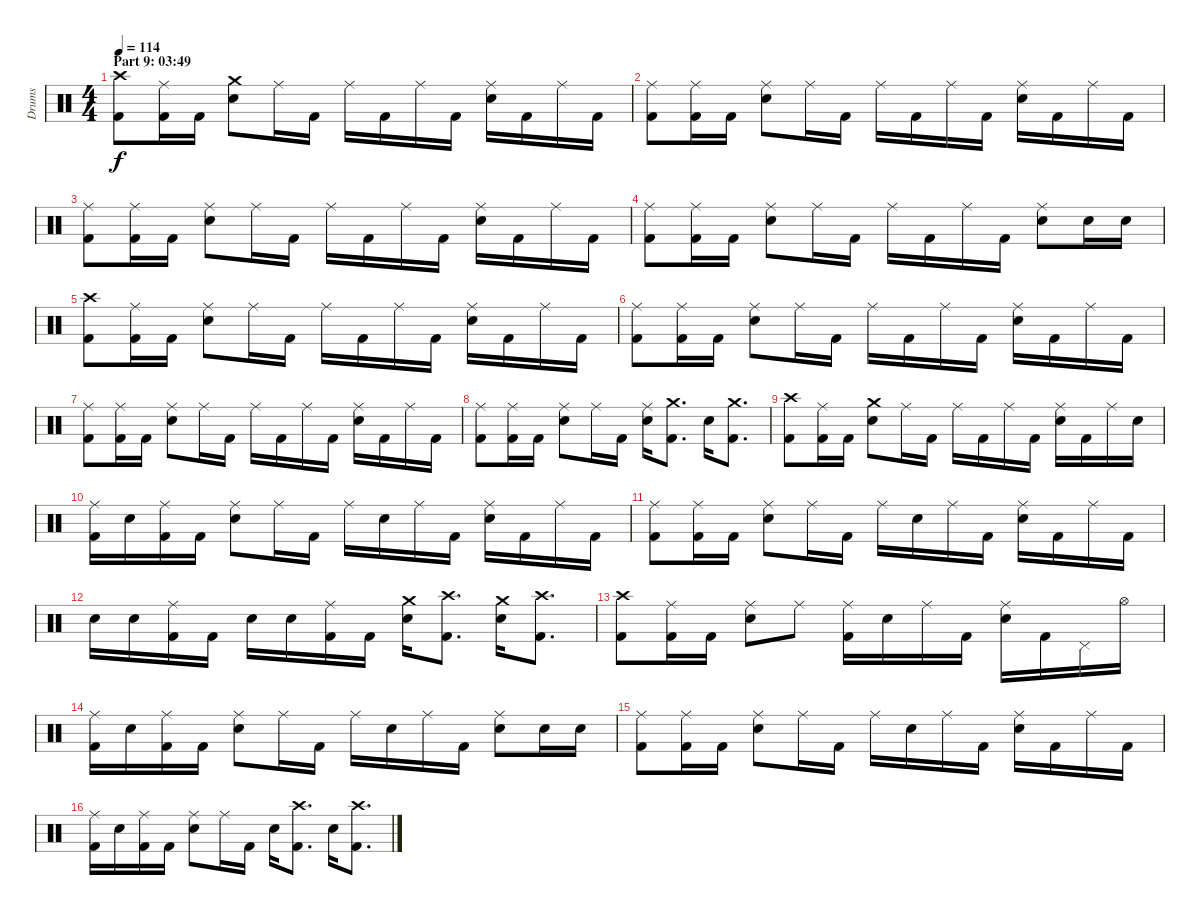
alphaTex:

\track ("Drums" "Drums") {instrument percussion}
\staff {score}
\articulation defaults
\ts (4 4)
\section ("" "Part 9: 03:49")
\tempo 114
\clef neutral
\ks c
("Crash high (hit)" "Kick (hit) 2").8{dy f} ("Ride (middle)" "Kick (hit) 2").16 "Kick (hit) 2".16 ("Crash medium (hit)" "Electric Snare (hit)").8 "Ride (middle)".16 "Kick (hit) 2".16 "Ride (middle)".16 "Kick (hit) 2".16 "Ride (middle)".16 "Kick (hit) 2".16 ("Ride (middle)" "Electric Snare (hit)").16 "Kick (hit) 2".16 "Ride (middle)".16 "Kick (hit) 2".16 |
("Ride (middle)" "Kick (hit) 2").8 ("Ride (middle)" "Kick (hit) 2").16 "Kick (hit) 2".16 ("Ride (middle)" "Electric Snare (hit)").8 "Ride (middle)".16 "Kick (hit) 2".16 "Ride (middle)".16 "Kick (hit) 2".16 "Ride (middle)".16 "Kick (hit) 2".16 ("Ride (middle)" "Electric Snare (hit)").16 "Kick (hit) 2".16 "Ride (middle)".16 "Kick (hit) 2".16 |
("Ride (middle)" "Kick (hit) 2").8 ("Ride (middle)" "Kick (hit) 2").16 "Kick (hit) 2".16 ("Ride (middle)" "Electric Snare (hit)").8 "Ride (middle)".16 "Kick (hit) 2".16 "Ride (middle)".16 "Kick (hit) 2".16 "Ride (middle)".16 "Kick (hit) 2".16 ("Ride (middle)" "Electric Snare (hit)").16 "Kick (hit) 2".16 "Ride (middle)".16 "Kick (hit) 2".16 |
("Ride (middle)" "Kick (hit) 2").8 ("Ride (middle)" "Kick (hit) 2").16 "Kick (hit) 2".16 ("Ride (middle)" "Electric Snare (hit)").8 "Ride (middle)".16 "Kick (hit) 2".16 "Ride (middle)".16 "Kick (hit) 2".16 "Ride (middle)".16 "Kick (hit) 2".16 ("Ride (middle)" "Electric Snare (hit)").8 "Electric Snare (hit)".16 "Electric Snare (hit)".16 |
("Crash high (hit)" "Kick (hit) 2").8 ("Ride (middle)" "Kick (hit) 2").16 "Kick (hit) 2".16 ("Ride (middle)" "Electric Snare (hit)").8 "Ride (middle)".16 "Kick (hit) 2".16 "Ride (middle)".16 "Kick (hit) 2".16 "Ride (middle)".16 "Kick (hit) 2".16 ("Ride (middle)" "Electric Snare (hit)").16 "Kick (hit) 2".16 "Ride (middle)".16 "Kick (hit) 2".16 |
("Ride (middle)" "Kick (hit) 2").8 ("Ride (middle)" "Kick (hit) 2").16 "Kick (hit) 2".16 ("Ride (middle)" "Electric Snare (hit)").8 "Ride (middle)".16 "Kick (hit) 2".16 "Ride (middle)".16 "Kick (hit) 2".16 "Ride (middle)".16 "Kick (hit) 2".16 ("Ride (middle)" "Electric Snare (hit)").16 "Kick (hit) 2".16 "Ride (middle)".16 "Kick (hit) 2".16 |
("Ride (middle)" "Kick (hit) 2").8 ("Ride (middle)" "Kick (hit) 2").16 "Kick (hit) 2".16 ("Ride (middle)" "Electric Snare (hit)").8 "Ride (middle)".16 "Kick (hit) 2".16 "Ride (middle)".16 "Kick (hit) 2".16 "Ride (middle)".16 "Kick (hit) 2".16 ("Ride (middle)" "Electric Snare (hit)").16 "Kick (hit) 2".16 "Ride (middle)".16 "Kick (hit) 2".16 |
("Ride (middle)" "Kick (hit) 2").8 ("Ride (middle)" "Kick (hit) 2").16 "Kick (hit) 2".16 ("Ride (middle)" "Electric Snare (hit)").8 "Ride (middle)".16 "Kick (hit) 2".16 ("Ride (middle)" "Electric Snare (hit)").16 ("Crash medium (hit)" "Kick (hit) 2").8{d} "Electric Snare (hit)".16 ("Crash medium (hit)" "Kick (hit) 2").8{d} |
("Crash high (hit)" "Kick (hit) 2").8 ("Ride (middle)" "Kick (hit) 2").16 "Kick (hit) 2".16 ("Crash medium (hit)" "Electric Snare (hit)").8 "Ride (middle)".16 "Kick (hit) 2".16 "Ride (middle)".16 "Kick (hit) 2".16 "Ride (middle)".16 "Kick (hit) 2".16 ("Ride (middle)" "Electric Snare (hit)").16 "Kick (hit) 2".16 "Ride (middle)".16 "Electric Snare (hit)".16 |
("Ride (middle)" "Kick (hit) 2").16 "Electric Snare (hit)".16 ("Ride (middle)" "Kick (hit) 2").16 "Kick (hit) 2".16 ("Ride (middle)" "Electric Snare (hit)").8 "Ride (middle)".16 "Kick (hit) 2".16 "Ride (middle)".16 "Electric Snare (hit)".16 "Ride (middle)".16 "Kick (hit) 2".16 ("Ride (middle)" "Electric Snare (hit)").16 "Kick (hit) 2".16 "Ride (middle)".16 "Kick (hit) 2".16 |
("Ride (middle)" "Kick (hit) 2").8 ("Ride (middle)" "Kick (hit) 2").16 "Kick (hit) 2".16 ("Ride (middle)" "Electric Snare (hit)").8 "Ride (middle)".16 "Kick (hit) 2".16 "Ride (middle)".16 "Electric Snare (hit)".16 "Ride (middle)".16 "Kick (hit) 2".16 ("Ride (middle)" "Electric Snare (hit)").16 "Kick (hit) 2".16 "Ride (middle)".16 "Kick (hit) 2".16 |
"Electric Snare (hit)".16 "Electric Snare (hit)".16 ("Ride (middle)" "Kick (hit) 2").16 "Kick (hit) 2".16 "Electric Snare (hit)".16 "Electric Snare (hit)".16 ("Ride (middle)" "Kick (hit) 2").16 "Kick (hit) 2".16 ("Crash medium (hit)" "Electric Snare (hit)").16 ("Crash high (hit)" "Kick (hit) 2").8{d} ("Crash medium (hit)" "Electric Snare (hit)").16 ("Crash high (hit)" "Kick (hit) 2").8{d} |
("Crash high (hit)" "Kick (hit) 2").8 ("Ride (middle)" "Kick (hit) 2").16 "Kick (hit) 2".16 ("Ride (middle)" "Electric Snare (hit)").8 "Ride (middle)".8 ("Ride (middle)" "Kick (hit) 2").16 "Electric Snare (hit)".16 "Ride (middle)".16 "Kick (hit) 2".16 ("Ride (middle)" "Electric Snare (hit)").16 "Kick (hit) 2".16 "Pedal Hi-Hat (hit)".16 "Hi-Hat (open)".16 |
("Ride (middle)" "Kick (hit) 2").16 "Electric Snare (hit)".16 ("Ride (middle)" "Kick (hit) 2").16 "Kick (hit) 2".16 ("Ride (middle)" "Electric Snare (hit)").8 "Ride (middle)".16 "Kick (hit) 2".16 "Ride (middle)".16 "Electric Snare (hit)".16 "Ride (middle)".16 "Kick (hit) 2".16 ("Ride (middle)" "Electric Snare (hit)").8 "Electric Snare (hit)".16 "Electric Snare (hit)".16 |
("Ride (middle)" "Kick (hit) 2").8 ("Ride (middle)" "Kick (hit) 2").16 "Kick (hit) 2".16 ("Ride (middle)" "Electric Snare (hit)").8 "Ride (middle)".16 "Kick (hit) 2".16 "Ride (middle)".16 "Electric Snare (hit)".16 "Ride (middle)".16 "Kick (hit) 2".16 ("Ride (middle)" "Electric Snare (hit)").16 "Kick (hit) 2".16 "Ride (middle)".16 "Kick (hit) 2".16 |
("Ride (middle)" "Kick (hit) 2").16 "Electric Snare (hit)".16 ("Ride (middle)" "Kick (hit) 2").16 "Kick (hit) 2".16 ("Ride (middle)" "Electric Snare (hit)").8 "Ride (middle)".16 "Kick (hit) 2".16 "Electric Snare (hit)".16 ("Crash high (hit)" "Kick (hit) 2").8{d} "Electric Snare (hit)".16 ("Crash high (hit)" "Kick (hit) 2").8{d}
